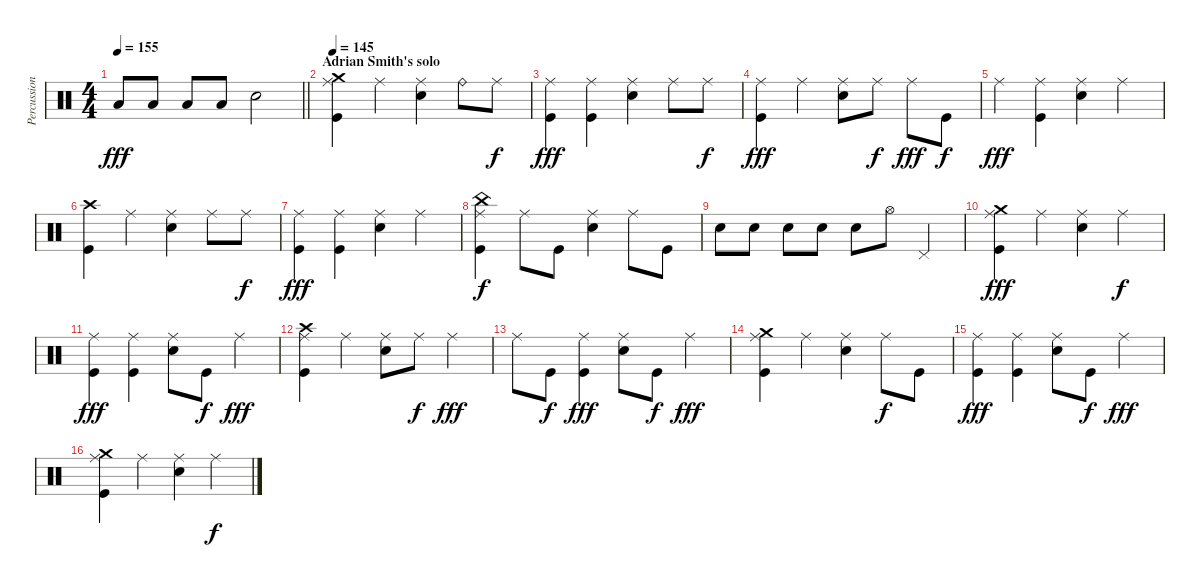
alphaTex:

\track ("Percussioni" "Percussion") {instrument percussion}
\staff {score}
\articulation defaults
\ts (4 4)
\tempo 155
\clef neutral
\barLineRight lightlight
\ks c "Low Floor Tom (hit)".8{dy fff} "Low Floor Tom (hit)".8 "Low Floor Tom (hit)".8 "Low Floor Tom (hit)".8 "Snare (hit) 2".2
|
\section ("" "Adrian Smith's solo")
\tempo 145
("Crash medium (hit)" "Ride (middle)" "Kick (hit)").4 "Ride (middle)".4 ("Ride (middle)" "Snare (hit) 2").4 "Ride (bell)".8 "Ride (middle)".8{dy f} |
("Ride (middle)" "Kick (hit)").4{dy fff} ("Ride (middle)" "Kick (hit)").4 ("Ride (middle)" "Snare (hit) 2").4 "Ride (middle)".8 "Ride (middle)".8{dy f} |
("Ride (middle)" "Kick (hit)").4{dy fff} "Ride (middle)".4 ("Ride (middle)" "Snare (hit) 2").8 "Ride (middle)".8{dy f} "Ride (middle)".8{dy fff} "Kick (hit)".8{dy f} |
"Ride (middle)".4{dy fff} ("Ride (middle)" "Kick (hit)").4 ("Ride (middle)" "Snare (hit) 2").4 "Ride (middle)".4 |
("Crash high (hit)" "Kick (hit)").4 "Ride (middle)".4 ("Ride (middle)" "Snare (hit) 2").4 "Ride (middle)".8 "Ride (middle)".8{dy f} |
("Ride (middle)" "Kick (hit)").4{dy fff} ("Ride (middle)" "Kick (hit)").4 ("Ride (middle)" "Snare (hit) 2").4 "Ride (middle)".4 |
("China (hit)" "Ride (middle)" "Kick (hit)").4{dy f} "Ride (middle)".8 "Kick (hit)".8 ("Ride (middle)" "Snare (hit) 2").4 "Ride (middle)".8 "Kick (hit)".8 |
"Snare (hit) 2".8 "Snare (hit) 2".8 "Snare (hit) 2".8 "Snare (hit) 2".8 "Snare (hit) 2".8 "Hi-Hat (open)".8 "Pedal Hi-Hat (hit)".4 |
("Crash medium (hit)" "Ride (middle)" "Kick (hit)").4{dy fff} "Ride (middle)".4 ("Ride (middle)" "Snare (hit) 2").4 "Ride (middle)".4{dy f} |
("Ride (middle)" "Kick (hit)").4{dy fff} ("Ride (middle)" "Kick (hit)").4 ("Ride (middle)" "Snare (hit) 2").8 "Kick (hit)".8{dy f} "Ride (middle)".4{dy fff} |
("Crash high (hit)" "Ride (middle)" "Kick (hit)").4 "Ride (middle)".4 ("Ride (middle)" "Snare (hit) 2").8 "Ride (middle)".8{dy f} "Ride (middle)".4{dy fff} |
"Ride (middle)".8 "Kick (hit)".8{dy f} ("Ride (middle)" "Kick (hit)").4{dy fff} ("Ride (middle)" "Snare (hit) 2").8 "Kick (hit)".8{dy f} "Ride (middle)".4{dy fff} |
("Crash medium (hit)" "Ride (middle)" "Kick (hit)").4 "Ride (middle)".4 ("Ride (middle)" "Snare (hit) 2").4 "Ride (middle)".8{dy f} "Kick (hit)".8 |
("Ride (middle)" "Kick (hit)").4{dy fff} ("Ride (middle)" "Kick (hit)").4 ("Ride (middle)" "Snare (hit) 2").8 "Kick (hit)".8{dy f} "Ride (middle)".4{dy fff} |
("Crash medium (hit)" "Ride (middle)" "Kick (hit)").4 "Ride (middle)".4 ("Ride (middle)" "Snare (hit) 2").4 "Ride (middle)".4{dy f}
